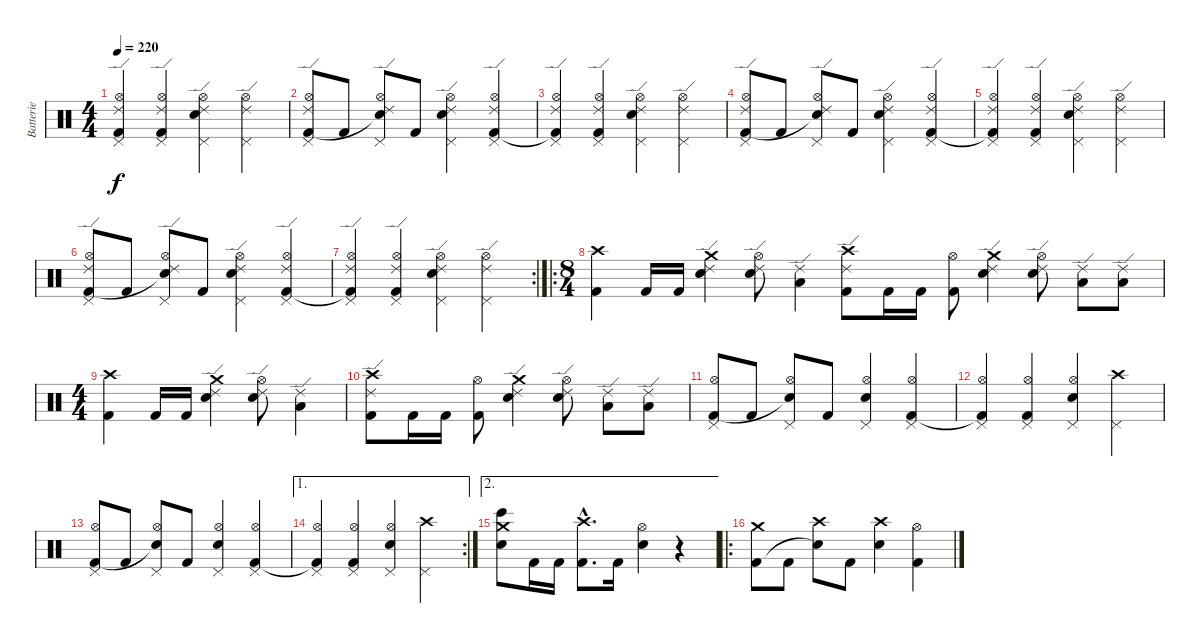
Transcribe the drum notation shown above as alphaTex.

\track ("Batterie" "Batterie") {instrument percussion}
\staff {score}
\articulation defaults
\ts (4 4)
\tempo 220
\clef neutral
\ks c
("Ride (edge) 2" "Pedal Hi-Hat (hit)" "Hi-Hat (open)" "Kick (hit) 2"{t}).4{dy f} ("Ride (edge) 2" "Pedal Hi-Hat (hit)" "Hi-Hat (open)" "Kick (hit) 2").4 ("Ride (edge) 2" "Pedal Hi-Hat (hit)" "Hi-Hat (open)" "Electric Snare (hit)").4 ("Ride (edge) 2" "Pedal Hi-Hat (hit)" "Hi-Hat (open)").4 |
("Ride (edge) 2" "Pedal Hi-Hat (hit)" "Hi-Hat (open)" "Kick (hit) 2").8 "Kick (hit) 2".8 ("Ride (edge) 2" "Pedal Hi-Hat (hit)" "Hi-Hat (open)" "Snare (hit)"{t}).8 "Kick (hit) 2".8 ("Ride (edge) 2" "Pedal Hi-Hat (hit)" "Hi-Hat (open)" "Electric Snare (hit)").4 ("Ride (edge) 2" "Pedal Hi-Hat (hit)" "Hi-Hat (open)" "Kick (hit) 2").4 |
("Ride (edge) 2" "Pedal Hi-Hat (hit)" "Hi-Hat (open)" "Kick (hit) 2"{t}).4 ("Ride (edge) 2" "Pedal Hi-Hat (hit)" "Hi-Hat (open)" "Kick (hit) 2").4 ("Ride (edge) 2" "Pedal Hi-Hat (hit)" "Hi-Hat (open)" "Electric Snare (hit)").4 ("Ride (edge) 2" "Pedal Hi-Hat (hit)" "Hi-Hat (open)").4 |
("Ride (edge) 2" "Pedal Hi-Hat (hit)" "Hi-Hat (open)" "Kick (hit) 2").8 "Kick (hit) 2".8 ("Ride (edge) 2" "Pedal Hi-Hat (hit)" "Hi-Hat (open)" "Snare (hit)"{t}).8 "Kick (hit) 2".8 ("Ride (edge) 2" "Pedal Hi-Hat (hit)" "Hi-Hat (open)" "Electric Snare (hit)").4 ("Ride (edge) 2" "Pedal Hi-Hat (hit)" "Hi-Hat (open)" "Kick (hit) 2").4 |
("Ride (edge) 2" "Pedal Hi-Hat (hit)" "Hi-Hat (open)" "Kick (hit) 2"{t}).4 ("Ride (edge) 2" "Pedal Hi-Hat (hit)" "Hi-Hat (open)" "Kick (hit) 2").4 ("Ride (edge) 2" "Pedal Hi-Hat (hit)" "Hi-Hat (open)" "Electric Snare (hit)").4 ("Ride (edge) 2" "Pedal Hi-Hat (hit)" "Hi-Hat (open)").4 |
("Ride (edge) 2" "Pedal Hi-Hat (hit)" "Hi-Hat (open)" "Kick (hit) 2").8 "Kick (hit) 2".8 ("Ride (edge) 2" "Pedal Hi-Hat (hit)" "Hi-Hat (open)" "Snare (hit)"{t}).8 "Kick (hit) 2".8 ("Ride (edge) 2" "Pedal Hi-Hat (hit)" "Hi-Hat (open)" "Electric Snare (hit)").4 ("Ride (edge) 2" "Pedal Hi-Hat (hit)" "Hi-Hat (open)" "Kick (hit) 2").4 |
\rc 2
("Ride (edge) 2" "Pedal Hi-Hat (hit)" "Hi-Hat (open)" "Kick (hit) 2"{t}).4 ("Ride (edge) 2" "Pedal Hi-Hat (hit)" "Hi-Hat (open)" "Kick (hit) 2").4 ("Ride (edge) 2" "Pedal Hi-Hat (hit)" "Hi-Hat (open)" "Electric Snare (hit)").4 ("Ride (edge) 2" "Pedal Hi-Hat (hit)" "Hi-Hat (open)").4 |
\ro
\ts (8 4)
("Crash high (hit)" "Kick (hit) 2").4 "Kick (hit) 2".16 "Kick (hit) 2".16 ("Ride (edge) 2" "Crash medium (hit)" "Electric Snare (hit)").4 ("Ride (edge) 2" "Hi-Hat (open)" "Electric Snare (hit)").8 ("Ride (edge) 2" "Low Tom (hit)").4 ("Ride (edge) 2" "Crash high (hit)" "Kick (hit) 2").8 "Kick (hit) 2".16 "Kick (hit) 2".16 ("Hi-Hat (open)" "Kick (hit) 2").8 ("Ride (edge) 2" "Crash medium (hit)" "Electric Snare (hit)").4 ("Ride (edge) 2" "Hi-Hat (open)" "Electric Snare (hit)").8 ("Ride (edge) 2" "Low Tom (hit)").8 ("Ride (edge) 2" "Low Tom (hit)").8 |
\ts (4 4)
("Crash high (hit)" "Kick (hit) 2").4 "Kick (hit) 2".16 "Kick (hit) 2".16 ("Ride (edge) 2" "Crash medium (hit)" "Electric Snare (hit)").4 ("Ride (edge) 2" "Hi-Hat (open)" "Electric Snare (hit)").8 ("Ride (edge) 2" "Low Tom (hit)").4 |
("Ride (edge) 2" "Crash high (hit)" "Kick (hit) 2").8 "Kick (hit) 2".16 "Kick (hit) 2".16 ("Hi-Hat (open)" "Kick (hit) 2").8 ("Ride (edge) 2" "Crash medium (hit)" "Electric Snare (hit)").4 ("Ride (edge) 2" "Hi-Hat (open)" "Electric Snare (hit)").8 ("Ride (edge) 2" "Low Tom (hit)").8 ("Ride (edge) 2" "Low Tom (hit)").8 |
("Pedal Hi-Hat (hit)" "Hi-Hat (open)" "Kick (hit) 2").8 "Kick (hit) 2".8 ("Pedal Hi-Hat (hit)" "Hi-Hat (open)" "Snare (hit)"{t}).8 "Kick (hit) 2".8 ("Pedal Hi-Hat (hit)" "Hi-Hat (open)" "Electric Snare (hit)").4 ("Pedal Hi-Hat (hit)" "Hi-Hat (open)" "Kick (hit) 2").4 |
("Pedal Hi-Hat (hit)" "Hi-Hat (open)" "Kick (hit) 2"{t}).4 ("Pedal Hi-Hat (hit)" "Hi-Hat (open)" "Kick (hit) 2").4 ("Pedal Hi-Hat (hit)" "Hi-Hat (open)" "Electric Snare (hit)").4 ("Pedal Hi-Hat (hit)" "Crash high (hit)").4 |
("Pedal Hi-Hat (hit)" "Hi-Hat (open)" "Kick (hit) 2").8 "Kick (hit) 2".8 ("Pedal Hi-Hat (hit)" "Hi-Hat (open)" "Snare (hit)"{t}).8 "Kick (hit) 2".8 ("Pedal Hi-Hat (hit)" "Hi-Hat (open)" "Electric Snare (hit)").4 ("Pedal Hi-Hat (hit)" "Hi-Hat (open)" "Kick (hit) 2").4 |
\ae 1
\rc 2
("Pedal Hi-Hat (hit)" "Hi-Hat (open)" "Kick (hit) 2"{t}).4 ("Pedal Hi-Hat (hit)" "Hi-Hat (open)" "Kick (hit) 2").4 ("Pedal Hi-Hat (hit)" "Hi-Hat (open)" "Electric Snare (hit)").4 ("Pedal Hi-Hat (hit)" "Crash high (hit)").4 |
\ae 2
("Crash medium (hit)" "Electric Snare (hit)" "Bongo High (hit)").8 "Kick (hit) 2".16 "Kick (hit) 2".16 ("Crash high (hit)"{hac} "Kick (hit) 2"{hac}).8{d} "Kick (hit) 2".16 ("Hi-Hat (open)" "Electric Snare (hit)").4 r.4 |
\ro
("Crash medium (hit)" "Kick (hit) 2").8 "Kick (hit) 2".8 ("Crash high (hit)" "Snare (hit)"{t}).8 "Kick (hit) 2".8 ("Crash high (hit)" "Electric Snare (hit)").4 ("Hi-Hat (open)" "Kick (hit) 2").4
